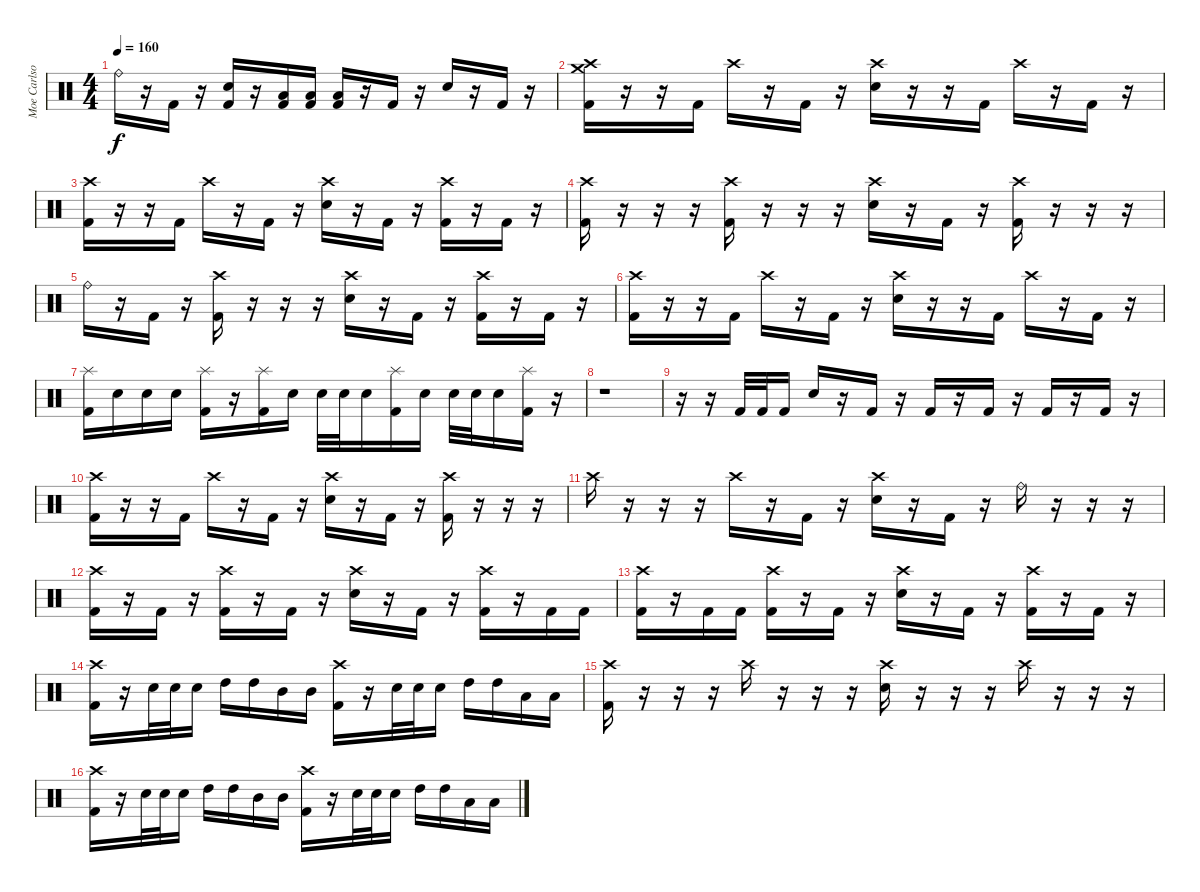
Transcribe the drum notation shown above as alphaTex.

\track ("Moe Carlson" "Moe Carlso") {instrument percussion}
\staff {score}
\articulation defaults
\ts (4 4)
\tempo 160
\clef neutral
\ks c "Ride (bell)".16{dy f}
r.16 "Kick (hit) 2".16 r.16 ("Electric Snare (hit)" "Kick (hit) 2").16 r.16 ("Low Tom (hit)" "Kick (hit) 2").16 ("Low Tom (hit)" "Kick (hit) 2").16 ("Low Tom (hit)" "Kick (hit) 2").16 r.16 "Kick (hit) 2".16 r.16 "Electric Snare (hit)".16 r.16 "Kick (hit) 2".16 r.16 |
("Crash high (hit)" "Crash medium (hit)" "Kick (hit) 2").16 r.16 r.16 "Kick (hit) 2".16 "Crash high (hit)".16 r.16 "Kick (hit) 2".16 r.16 ("Crash high (hit)" "Electric Snare (hit)").16 r.16 r.16 "Kick (hit) 2".16 "Crash high (hit)".16 r.16 "Kick (hit) 2".16 r.16 |
("Crash high (hit)" "Kick (hit) 2").16 r.16 r.16 "Kick (hit) 2".16 "Crash high (hit)".16 r.16 "Kick (hit) 2".16 r.16 ("Crash high (hit)" "Electric Snare (hit)").16 r.16 "Kick (hit) 2".16 r.16 ("Crash high (hit)" "Kick (hit) 2").16 r.16 "Kick (hit) 2".16 r.16 |
("Crash high (hit)" "Kick (hit) 2").16 r.16 r.16 r.16 ("Crash high (hit)" "Kick (hit) 2").16 r.16 r.16 r.16 ("Crash high (hit)" "Electric Snare (hit)").16 r.16 "Kick (hit) 2".16 r.16 ("Crash high (hit)" "Kick (hit) 2").16 r.16 r.16 r.16 |
"Ride (bell)".16 r.16 "Kick (hit) 2".16 r.16 ("Crash high (hit)" "Kick (hit) 2").16 r.16 r.16 r.16 ("Crash high (hit)" "Electric Snare (hit)").16 r.16 "Kick (hit) 2".16 r.16 ("Crash high (hit)" "Kick (hit) 2").16 r.16 "Kick (hit) 2".16 r.16 |
("Crash high (hit)" "Kick (hit) 2").16 r.16 r.16 "Kick (hit) 2".16 "Crash high (hit)".16 r.16 "Kick (hit) 2".16 r.16 ("Crash high (hit)" "Electric Snare (hit)").16 r.16 r.16 "Kick (hit) 2".16 "Crash high (hit)".16 r.16 "Kick (hit) 2".16 r.16 |
("Splash (hit)" "Kick (hit) 2").16 "Electric Snare (hit)".16 "Electric Snare (hit)".16 "Electric Snare (hit)".16 ("Splash (hit)" "Kick (hit) 2").16 r.16 ("Splash (hit)" "Kick (hit) 2").16 "Electric Snare (hit)".16 "Electric Snare (hit)".32 "Electric Snare (hit)".32 "Electric Snare (hit)".16 ("Splash (hit)" "Kick (hit) 2").16 "Electric Snare (hit)".16 "Electric Snare (hit)".32 "Electric Snare (hit)".32 "Electric Snare (hit)".16 ("Splash (hit)" "Kick (hit) 2").16 r.16 |
r.1 |
r.16 r.16 "Kick (hit) 2".32 "Kick (hit) 2".32 "Kick (hit) 2".16 "Electric Snare (hit)".16 r.16 "Kick (hit) 2".16 r.16 "Kick (hit) 2".16 r.16 "Kick (hit) 2".16 r.16 "Kick (hit) 2".16 r.16 "Kick (hit) 2".16 r.16 |
("Crash high (hit)" "Kick (hit) 2").16 r.16 r.16 "Kick (hit) 2".16 "Crash high (hit)".16 r.16 "Kick (hit) 2".16 r.16 ("Crash high (hit)" "Electric Snare (hit)").16 r.16 "Kick (hit) 2".16 r.16 ("Crash high (hit)" "Kick (hit) 2").16 r.16 r.16 r.16 |
"Crash high (hit)".16 r.16 r.16 r.16 "Crash high (hit)".16 r.16 "Kick (hit) 2".16 r.16 ("Crash high (hit)" "Electric Snare (hit)").16 r.16 "Kick (hit) 2".16 r.16 "Ride (bell)".16 r.16 r.16 r.16 |
("Crash high (hit)" "Kick (hit) 2").16 r.16 "Kick (hit) 2".16 r.16 ("Crash high (hit)" "Kick (hit) 2").16 r.16 "Kick (hit) 2".16 r.16 ("Crash high (hit)" "Electric Snare (hit)").16 r.16 "Kick (hit) 2".16 r.16 ("Crash high (hit)" "Kick (hit) 2").16 r.16 "Kick (hit) 2".16 "Kick (hit) 2".16 |
("Crash high (hit)" "Kick (hit) 2").16 r.16 "Kick (hit) 2".16 "Kick (hit) 2".16 ("Crash high (hit)" "Kick (hit) 2").16 r.16 "Kick (hit) 2".16 r.16 ("Crash high (hit)" "Electric Snare (hit)").16 r.16 "Kick (hit) 2".16 r.16 ("Crash high (hit)" "Kick (hit) 2").16 r.16 "Kick (hit) 2".16 r.16 |
("Crash high (hit)" "Kick (hit) 2").16 r.16 "Electric Snare (hit)".32 "Electric Snare (hit)".32 "Electric Snare (hit)".16 "High Tom (hit)".16 "High Tom (hit)".16 "Mid Tom (hit)".16 "Mid Tom (hit)".16 ("Crash high (hit)" "Kick (hit) 2").16 r.16 "Electric Snare (hit)".32 "Electric Snare (hit)".32 "Electric Snare (hit)".16 "High Tom (hit)".16 "High Tom (hit)".16 "Low Tom (hit)".16 "Low Tom (hit)".16 |
("Crash high (hit)" "Kick (hit) 2").16 r.16 r.16 r.16 "Crash high (hit)".16 r.16 r.16 r.16 ("Crash high (hit)" "Electric Snare (hit)").16 r.16 r.16 r.16 "Crash high (hit)".16 r.16 r.16 r.16 |
("Crash high (hit)" "Kick (hit) 2").16 r.16 "Electric Snare (hit)".32 "Electric Snare (hit)".32 "Electric Snare (hit)".16 "High Tom (hit)".16 "High Tom (hit)".16 "Mid Tom (hit)".16 "Mid Tom (hit)".16 ("Crash high (hit)" "Kick (hit) 2").16 r.16 "Electric Snare (hit)".32 "Electric Snare (hit)".32 "Electric Snare (hit)".16 "High Tom (hit)".16 "High Tom (hit)".16 "Low Tom (hit)".16 "Low Tom (hit)".16
